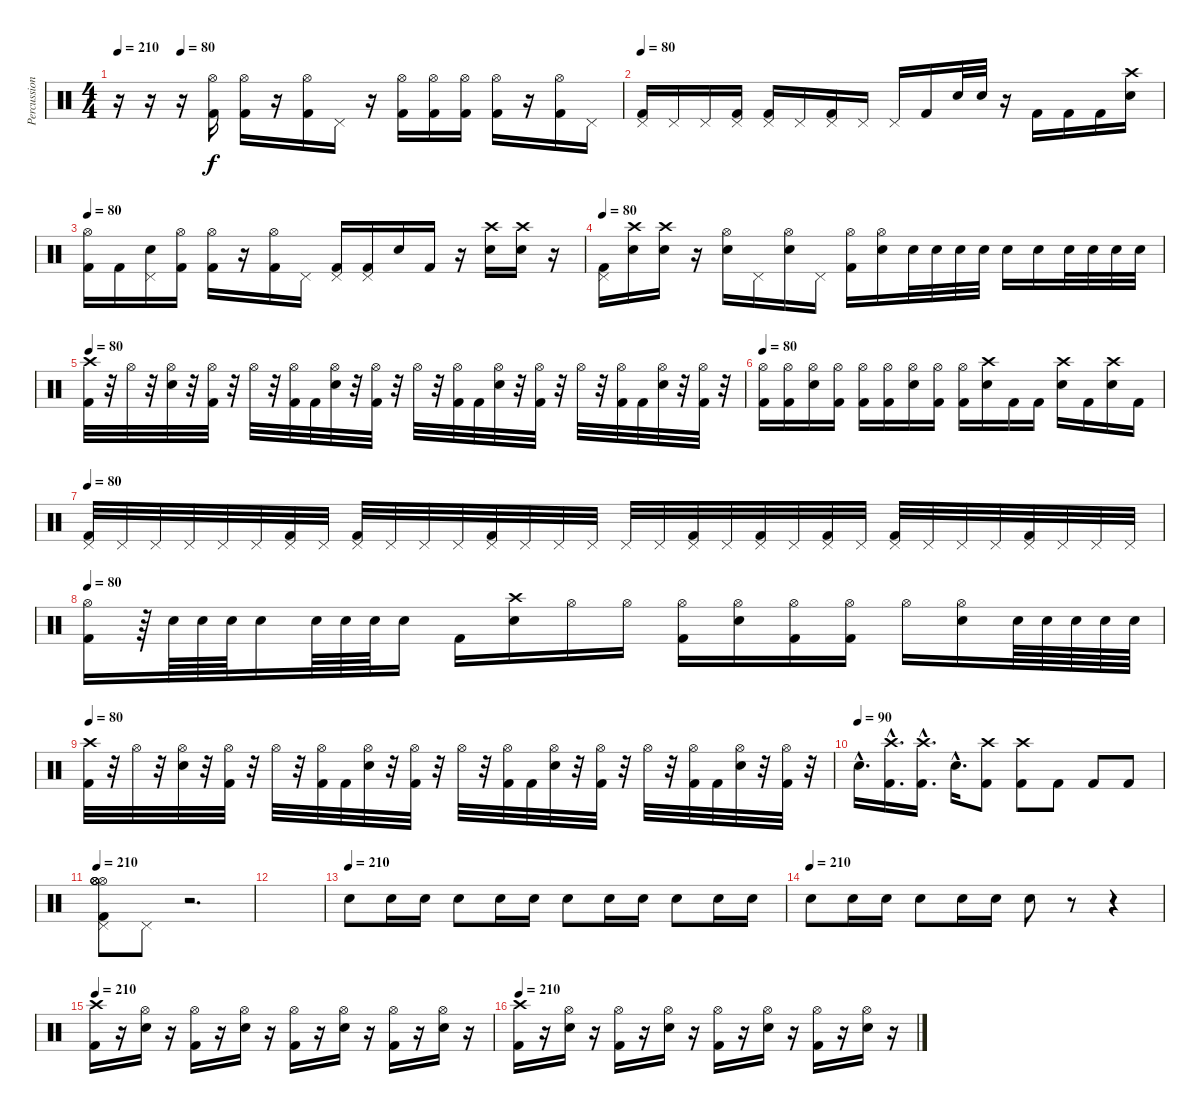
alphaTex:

\track ("Percussioni" "Percussion") {instrument percussion}
\staff {score}
\articulation defaults
\ts (4 4)
\tempo 210
\tempo (80 0.125)
\clef neutral
\ks c
r.16{dy f} r.16 r.16 ("Hi-Hat (open)" "Kick (hit) 2").16 ("Hi-Hat (open)" "Kick (hit) 2").16 r.16 ("Hi-Hat (open)" "Kick (hit) 2").16 "Pedal Hi-Hat (hit)".16 r.16 ("Hi-Hat (open)" "Kick (hit) 2").16 ("Hi-Hat (open)" "Kick (hit) 2").16 ("Hi-Hat (open)" "Kick (hit) 2").16 ("Hi-Hat (open)" "Kick (hit) 2").16 r.16 ("Hi-Hat (open)" "Kick (hit) 2").16 "Pedal Hi-Hat (hit)".16 |
\tempo 80
("Pedal Hi-Hat (hit)" "Kick (hit) 2").16 "Pedal Hi-Hat (hit)".16 "Pedal Hi-Hat (hit)".16 ("Pedal Hi-Hat (hit)" "Kick (hit) 2").16 ("Pedal Hi-Hat (hit)" "Kick (hit) 2").16 "Pedal Hi-Hat (hit)".16 ("Pedal Hi-Hat (hit)" "Kick (hit) 2").16 "Pedal Hi-Hat (hit)".16 "Pedal Hi-Hat (hit)".16 "Kick (hit) 2".16 "Electric Snare (hit)".32 "Electric Snare (hit)".32 r.16 "Kick (hit) 2".16 "Kick (hit) 2".16 "Kick (hit) 2".16 ("Crash high (hit)" "Electric Snare (hit)").16 |
\tempo 80
("Hi-Hat (open)" "Kick (hit) 2").16 "Kick (hit) 2".16 ("Pedal Hi-Hat (hit)" "Electric Snare (hit)").16 ("Hi-Hat (open)" "Kick (hit) 2").16 ("Hi-Hat (open)" "Kick (hit) 2").16 r.16 ("Hi-Hat (open)" "Kick (hit) 2").16 "Pedal Hi-Hat (hit)".16 ("Pedal Hi-Hat (hit)" "Kick (hit) 2").16 ("Pedal Hi-Hat (hit)" "Kick (hit) 2").16 "Electric Snare (hit)".16 "Kick (hit) 2".16 r.16 ("Crash high (hit)" "Electric Snare (hit)").16 ("Crash high (hit)" "Electric Snare (hit)").16 r.16 |
\tempo 80
("Pedal Hi-Hat (hit)" "Kick (hit) 2").16 ("Crash high (hit)" "Electric Snare (hit)").16 ("Crash high (hit)" "Electric Snare (hit)").16 r.16 ("Hi-Hat (open)" "Electric Snare (hit)").16 "Pedal Hi-Hat (hit)".16 ("Hi-Hat (open)" "Electric Snare (hit)").16 "Pedal Hi-Hat (hit)".16 ("Hi-Hat (open)" "Kick (hit) 2").16 ("Hi-Hat (open)" "Electric Snare (hit)").16 "Electric Snare (hit)".32 "Electric Snare (hit)".32 "Electric Snare (hit)".32 "Electric Snare (hit)".32 "Electric Snare (hit)".16 "Electric Snare (hit)".16 "Electric Snare (hit)".32 "Electric Snare (hit)".32 "Electric Snare (hit)".32 "Electric Snare (hit)".32 |
\tempo 80
("Crash high (hit)" "Kick (hit) 2").32 r.32 "Hi-Hat (open)".32 r.32 ("Hi-Hat (open)" "Electric Snare (hit)").32 r.32 ("Hi-Hat (open)" "Kick (hit) 2").32 r.32 "Hi-Hat (open)".32 r.32 ("Hi-Hat (open)" "Kick (hit) 2").32 "Kick (hit) 2".32 ("Hi-Hat (open)" "Electric Snare (hit)").32 r.32 ("Hi-Hat (open)" "Kick (hit) 2").32 r.32 "Hi-Hat (open)".32 r.32 ("Hi-Hat (open)" "Kick (hit) 2").32 "Kick (hit) 2".32 ("Hi-Hat (open)" "Electric Snare (hit)").32 r.32 ("Hi-Hat (open)" "Kick (hit) 2").32 r.32 "Hi-Hat (open)".32 r.32 ("Hi-Hat (open)" "Kick (hit) 2").32 "Kick (hit) 2".32 ("Hi-Hat (open)" "Electric Snare (hit)").32 r.32 ("Hi-Hat (open)" "Kick (hit) 2").32 r.32 |
\tempo 80
("Hi-Hat (open)" "Kick (hit) 2").16 ("Hi-Hat (open)" "Kick (hit) 2").16 ("Hi-Hat (open)" "Electric Snare (hit)").16 ("Hi-Hat (open)" "Kick (hit) 2").16 ("Hi-Hat (open)" "Kick (hit) 2").16 ("Hi-Hat (open)" "Kick (hit) 2").16 ("Hi-Hat (open)" "Electric Snare (hit)").16 ("Hi-Hat (open)" "Kick (hit) 2").16 ("Hi-Hat (open)" "Kick (hit) 2").16 ("Crash high (hit)" "Electric Snare (hit)").16 "Kick (hit) 2".16 "Kick (hit) 2".16 ("Crash high (hit)" "Electric Snare (hit)").16 "Kick (hit) 2".16 ("Crash high (hit)" "Electric Snare (hit)").16 "Kick (hit) 2".16 |
\tempo 80
("Pedal Hi-Hat (hit)" "Kick (hit) 2").32 "Pedal Hi-Hat (hit)".32 "Pedal Hi-Hat (hit)".32 "Pedal Hi-Hat (hit)".32 "Pedal Hi-Hat (hit)".32 "Pedal Hi-Hat (hit)".32 ("Pedal Hi-Hat (hit)" "Kick (hit) 2").32 "Pedal Hi-Hat (hit)".32 ("Pedal Hi-Hat (hit)" "Kick (hit) 2").32 "Pedal Hi-Hat (hit)".32 "Pedal Hi-Hat (hit)".32 "Pedal Hi-Hat (hit)".32 ("Pedal Hi-Hat (hit)" "Kick (hit) 2").32 "Pedal Hi-Hat (hit)".32 "Pedal Hi-Hat (hit)".32 "Pedal Hi-Hat (hit)".32 "Pedal Hi-Hat (hit)".32 "Pedal Hi-Hat (hit)".32 ("Pedal Hi-Hat (hit)" "Kick (hit) 2").32 "Pedal Hi-Hat (hit)".32 ("Pedal Hi-Hat (hit)" "Kick (hit) 2").32 "Pedal Hi-Hat (hit)".32 ("Pedal Hi-Hat (hit)" "Kick (hit) 2").32 "Pedal Hi-Hat (hit)".32 ("Pedal Hi-Hat (hit)" "Kick (hit) 2").32 "Pedal Hi-Hat (hit)".32 "Pedal Hi-Hat (hit)".32 "Pedal Hi-Hat (hit)".32 ("Pedal Hi-Hat (hit)" "Kick (hit) 2").32 "Pedal Hi-Hat (hit)".32 "Pedal Hi-Hat (hit)".32 "Pedal Hi-Hat (hit)".32 |
\tempo 80
("Hi-Hat (open)" "Kick (hit) 2").16 r.64 "Electric Snare (hit)".64 "Electric Snare (hit)".64 "Electric Snare (hit)".64 "Electric Snare (hit)".16 "Electric Snare (hit)".64 "Electric Snare (hit)".64 "Electric Snare (hit)".64 "Electric Snare (hit)".16 "Kick (hit) 2".16 ("Crash high (hit)" "Electric Snare (hit)").16 "Hi-Hat (open)".16 "Hi-Hat (open)".16 ("Hi-Hat (open)" "Kick (hit) 2").16 ("Hi-Hat (open)" "Electric Snare (hit)").16 ("Hi-Hat (open)" "Kick (hit) 2").16 ("Hi-Hat (open)" "Kick (hit) 2").16 "Hi-Hat (open)".16 ("Hi-Hat (open)" "Electric Snare (hit)").16 "Electric Snare (hit)".64 "Electric Snare (hit)".64 "Electric Snare (hit)".64 "Electric Snare (hit)".64 "Electric Snare (hit)".64 |
\tempo 80
("Crash high (hit)" "Kick (hit) 2").32 r.32 "Hi-Hat (open)".32 r.32 ("Hi-Hat (open)" "Electric Snare (hit)").32 r.32 ("Hi-Hat (open)" "Kick (hit) 2").32 r.32 "Hi-Hat (open)".32 r.32 ("Hi-Hat (open)" "Kick (hit) 2").32 "Kick (hit) 2".32 ("Hi-Hat (open)" "Electric Snare (hit)").32 r.32 ("Hi-Hat (open)" "Kick (hit) 2").32 r.32 "Hi-Hat (open)".32 r.32 ("Hi-Hat (open)" "Kick (hit) 2").32 "Kick (hit) 2".32 ("Hi-Hat (open)" "Electric Snare (hit)").32 r.32 ("Hi-Hat (open)" "Kick (hit) 2").32 r.32 "Hi-Hat (open)".32 r.32 ("Hi-Hat (open)" "Kick (hit) 2").32 "Kick (hit) 2".32 ("Hi-Hat (open)" "Electric Snare (hit)").32 r.32 ("Hi-Hat (open)" "Kick (hit) 2").32 r.32 |
\tempo (90)
"Electric Snare (hit)"{hac}.16{d} ("Crash high (hit)"{hac} "Kick (hit) 2"{hac}).16{d} ("Crash high (hit)"{hac} "Kick (hit) 2"{hac}).16{d} "Electric Snare (hit)"{hac}.16{d} ("Crash high (hit)" "Kick (hit) 2").8 ("Crash high (hit)" "Kick (hit) 2").8 "Kick (hit) 2".8 "Kick (hit) 2".8 "Kick (hit) 2".8 |
\tempo 210
("Hi-Hat (open)" "Hi-Hat (open)" "Pedal Hi-Hat (hit)" "Hi-Hat (open)" "Hi-Hat (open)" "Kick (hit) 2").8 "Pedal Hi-Hat (hit)".8 r.2{d} |
|
\tempo (210)
"Electric Snare (hit)".8 "Electric Snare (hit)".16 "Electric Snare (hit)".16 "Electric Snare (hit)".8 "Electric Snare (hit)".16 "Electric Snare (hit)".16 "Electric Snare (hit)".8 "Electric Snare (hit)".16 "Electric Snare (hit)".16 "Electric Snare (hit)".8 "Electric Snare (hit)".16 "Electric Snare (hit)".16 |
\tempo (210)
"Electric Snare (hit)".8 "Electric Snare (hit)".16 "Electric Snare (hit)".16 "Electric Snare (hit)".8 "Electric Snare (hit)".16 "Electric Snare (hit)".16 "Electric Snare (hit)".8 r.8 r.4 |
\tempo 210
("Kick (hit) 2" "Crash high (hit)").16 r.16 ("Snare (hit) 2" "Hi-Hat (open)").16 r.16 ("Kick (hit) 2" "Hi-Hat (open)").16 r.16 ("Snare (hit) 2" "Hi-Hat (open)").16 r.16 ("Kick (hit) 2" "Hi-Hat (open)").16 r.16 ("Snare (hit) 2" "Hi-Hat (open)").16 r.16 ("Kick (hit) 2" "Hi-Hat (open)").16 r.16 ("Snare (hit) 2" "Hi-Hat (open)").16 r.16 |
\tempo 210
("Kick (hit) 2" "Crash high (hit)").16 r.16 ("Snare (hit) 2" "Hi-Hat (open)").16 r.16 ("Kick (hit) 2" "Hi-Hat (open)").16 r.16 ("Snare (hit) 2" "Hi-Hat (open)").16 r.16 ("Kick (hit) 2" "Hi-Hat (open)").16 r.16 ("Snare (hit) 2" "Hi-Hat (open)").16 r.16 ("Kick (hit) 2" "Hi-Hat (open)").16 r.16 ("Snare (hit) 2" "Hi-Hat (open)").16 r.16
